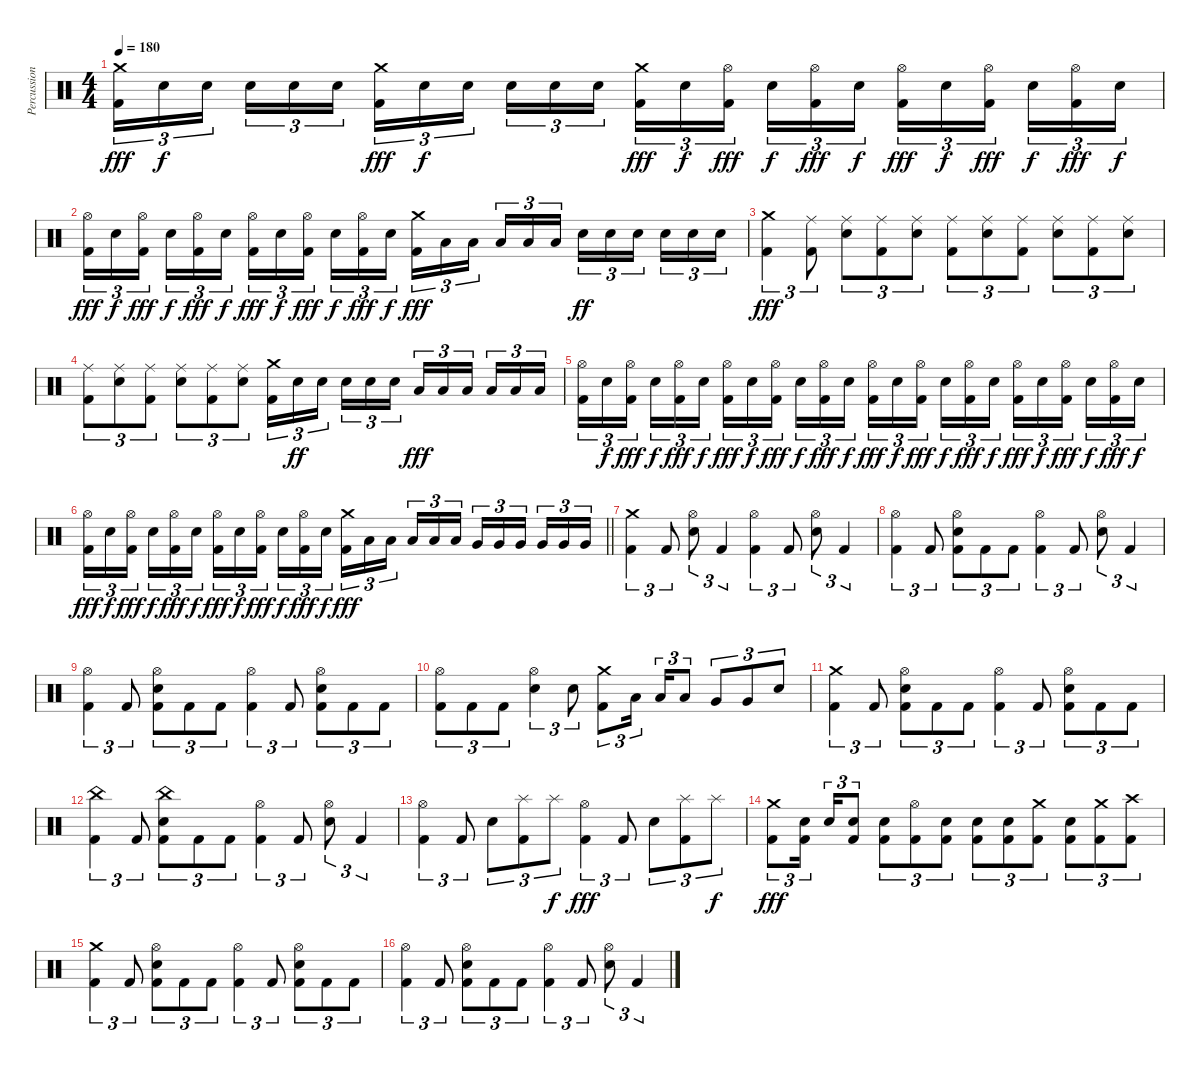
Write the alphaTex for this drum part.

\track ("Percussion" "Percussion") {instrument percussion}
\staff {score}
\articulation defaults
\ts (4 4)
\section ("" "")
\tempo 180
\clef neutral
\ks c
("Crash medium (hit)" "Kick (hit) 2").16{tu (3 2) dy fff} "Electric Snare (hit)".16{tu (3 2) dy f} "Electric Snare (hit)".16{tu (3 2) beam splitsecondary} "Electric Snare (hit)".16{tu (3 2)} "Electric Snare (hit)".16{tu (3 2)} "Electric Snare (hit)".16{tu (3 2)} ("Crash medium (hit)" "Kick (hit) 2").16{tu (3 2) dy fff} "Electric Snare (hit)".16{tu (3 2) dy f} "Electric Snare (hit)".16{tu (3 2) beam splitsecondary} "Electric Snare (hit)".16{tu (3 2)} "Electric Snare (hit)".16{tu (3 2)} "Electric Snare (hit)".16{tu (3 2)} ("Crash medium (hit)" "Kick (hit) 2").16{tu (3 2) dy fff} "Electric Snare (hit)".16{tu (3 2) dy f} ("Hi-Hat (open)" "Kick (hit) 2").16{tu (3 2) dy fff beam splitsecondary} "Electric Snare (hit)".16{tu (3 2) dy f} ("Hi-Hat (open)" "Kick (hit) 2").16{tu (3 2) dy fff} "Electric Snare (hit)".16{tu (3 2) dy f} ("Hi-Hat (open)" "Kick (hit) 2").16{tu (3 2) dy fff} "Electric Snare (hit)".16{tu (3 2) dy f} ("Hi-Hat (open)" "Kick (hit) 2").16{tu (3 2) dy fff beam splitsecondary} "Electric Snare (hit)".16{tu (3 2) dy f} ("Hi-Hat (open)" "Kick (hit) 2").16{tu (3 2) dy fff} "Electric Snare (hit)".16{tu (3 2) dy f} |
("Hi-Hat (open)" "Kick (hit) 2").16{tu (3 2) dy fff} "Electric Snare (hit)".16{tu (3 2) dy f} ("Hi-Hat (open)" "Kick (hit) 2").16{tu (3 2) dy fff beam splitsecondary} "Electric Snare (hit)".16{tu (3 2) dy f} ("Hi-Hat (open)" "Kick (hit) 2").16{tu (3 2) dy fff} "Electric Snare (hit)".16{tu (3 2) dy f} ("Hi-Hat (open)" "Kick (hit) 2").16{tu (3 2) dy fff} "Electric Snare (hit)".16{tu (3 2) dy f} ("Hi-Hat (open)" "Kick (hit) 2").16{tu (3 2) dy fff beam splitsecondary} "Electric Snare (hit)".16{tu (3 2) dy f} ("Hi-Hat (open)" "Kick (hit) 2").16{tu (3 2) dy fff} "Electric Snare (hit)".16{tu (3 2) dy f} ("Crash medium (hit)" "Kick (hit) 2").16{tu (3 2) dy fff} "Low Tom (hit)".16{tu (3 2)} "Low Tom (hit)".16{tu (3 2) beam splitsecondary} "Low Tom (hit)".16{tu (3 2)} "Low Tom (hit)".16{tu (3 2)} "Low Tom (hit)".16{tu (3 2)} "Electric Snare (hit)".16{tu (3 2) dy ff} "Electric Snare (hit)".16{tu (3 2)} "Electric Snare (hit)".16{tu (3 2) beam splitsecondary} "Electric Snare (hit)".16{tu (3 2)} "Electric Snare (hit)".16{tu (3 2)} "Electric Snare (hit)".16{tu (3 2)} |
("Crash medium (hit)" "Kick (hit) 2").4{tu (3 2) dy fff} ("Ride (middle)" "Kick (hit) 2").8{tu (3 2)} ("Ride (middle)" "Electric Snare (hit)").8{tu (3 2)} ("Ride (middle)" "Kick (hit) 2").8{tu (3 2)} ("Ride (middle)" "Electric Snare (hit)").8{tu (3 2)} ("Ride (middle)" "Kick (hit) 2").8{tu (3 2)} ("Ride (middle)" "Electric Snare (hit)").8{tu (3 2)} ("Ride (middle)" "Kick (hit) 2").8{tu (3 2)} ("Ride (middle)" "Electric Snare (hit)").8{tu (3 2)} ("Ride (middle)" "Kick (hit) 2").8{tu (3 2)} ("Ride (middle)" "Electric Snare (hit)").8{tu (3 2)} |
("Ride (middle)" "Kick (hit) 2").8{tu (3 2)} ("Ride (middle)" "Electric Snare (hit)").8{tu (3 2)} ("Ride (middle)" "Kick (hit) 2").8{tu (3 2)} ("Ride (middle)" "Electric Snare (hit)").8{tu (3 2)} ("Ride (middle)" "Kick (hit) 2").8{tu (3 2)} ("Ride (middle)" "Electric Snare (hit)").8{tu (3 2)} ("Crash medium (hit)" "Kick (hit) 2").16{tu (3 2)} "Electric Snare (hit)".16{tu (3 2) dy ff} "Electric Snare (hit)".16{tu (3 2) beam splitsecondary} "Electric Snare (hit)".16{tu (3 2)} "Electric Snare (hit)".16{tu (3 2)} "Electric Snare (hit)".16{tu (3 2)} "Low Tom (hit)".16{tu (3 2) dy fff} "Low Tom (hit)".16{tu (3 2)} "Low Tom (hit)".16{tu (3 2) beam splitsecondary} "Low Tom (hit)".16{tu (3 2)} "Low Tom (hit)".16{tu (3 2)} "Low Tom (hit)".16{tu (3 2)} |
("Hi-Hat (open)" "Kick (hit) 2").16{tu (3 2)} "Electric Snare (hit)".16{tu (3 2) dy f} ("Hi-Hat (open)" "Kick (hit) 2").16{tu (3 2) dy fff beam splitsecondary} "Electric Snare (hit)".16{tu (3 2) dy f} ("Hi-Hat (open)" "Kick (hit) 2").16{tu (3 2) dy fff} "Electric Snare (hit)".16{tu (3 2) dy f} ("Hi-Hat (open)" "Kick (hit) 2").16{tu (3 2) dy fff} "Electric Snare (hit)".16{tu (3 2) dy f} ("Hi-Hat (open)" "Kick (hit) 2").16{tu (3 2) dy fff beam splitsecondary} "Electric Snare (hit)".16{tu (3 2) dy f} ("Hi-Hat (open)" "Kick (hit) 2").16{tu (3 2) dy fff} "Electric Snare (hit)".16{tu (3 2) dy f} ("Hi-Hat (open)" "Kick (hit) 2").16{tu (3 2) dy fff} "Electric Snare (hit)".16{tu (3 2) dy f} ("Hi-Hat (open)" "Kick (hit) 2").16{tu (3 2) dy fff beam splitsecondary} "Electric Snare (hit)".16{tu (3 2) dy f} ("Hi-Hat (open)" "Kick (hit) 2").16{tu (3 2) dy fff} "Electric Snare (hit)".16{tu (3 2) dy f} ("Hi-Hat (open)" "Kick (hit) 2").16{tu (3 2) dy fff} "Electric Snare (hit)".16{tu (3 2) dy f} ("Hi-Hat (open)" "Kick (hit) 2").16{tu (3 2) dy fff beam splitsecondary} "Electric Snare (hit)".16{tu (3 2) dy f} ("Hi-Hat (open)" "Kick (hit) 2").16{tu (3 2) dy fff} "Electric Snare (hit)".16{tu (3 2) dy f} |
\barLineRight lightlight
("Hi-Hat (open)" "Kick (hit) 2").16{tu (3 2) dy fff} "Electric Snare (hit)".16{tu (3 2) dy f} ("Hi-Hat (open)" "Kick (hit) 2").16{tu (3 2) dy fff beam splitsecondary} "Electric Snare (hit)".16{tu (3 2) dy f} ("Hi-Hat (open)" "Kick (hit) 2").16{tu (3 2) dy fff} "Electric Snare (hit)".16{tu (3 2) dy f} ("Hi-Hat (open)" "Kick (hit) 2").16{tu (3 2) dy fff} "Electric Snare (hit)".16{tu (3 2) dy f} ("Hi-Hat (open)" "Kick (hit) 2").16{tu (3 2) dy fff beam splitsecondary} "Electric Snare (hit)".16{tu (3 2) dy f} ("Hi-Hat (open)" "Kick (hit) 2").16{tu (3 2) dy fff} "Electric Snare (hit)".16{tu (3 2) dy f} ("Crash medium (hit)" "Kick (hit) 2").16{tu (3 2) dy fff} "Low Tom (hit)".16{tu (3 2)} "Low Tom (hit)".16{tu (3 2) beam splitsecondary} "Low Tom (hit)".16{tu (3 2)} "Low Tom (hit)".16{tu (3 2)} "Low Tom (hit)".16{tu (3 2)} "Very Low Tom (hit)".16{tu (3 2)} "Very Low Tom (hit)".16{tu (3 2)} "Very Low Tom (hit)".16{tu (3 2) beam splitsecondary} "Very Low Tom (hit)".16{tu (3 2)} "Very Low Tom (hit)".16{tu (3 2)} "Very Low Tom (hit)".16{tu (3 2)} |
\section ("" "")
("Crash medium (hit)" "Kick (hit) 2").4{tu (3 2)} "Kick (hit) 2".8{tu (3 2)} ("Hi-Hat (open)" "Electric Snare (hit)").8{tu (3 2)} "Kick (hit) 2".4{tu (3 2)} ("Hi-Hat (open)" "Kick (hit) 2").4{tu (3 2)} "Kick (hit) 2".8{tu (3 2)} ("Hi-Hat (open)" "Electric Snare (hit)").8{tu (3 2)} "Kick (hit) 2".4{tu (3 2)} |
("Hi-Hat (open)" "Kick (hit) 2").4{tu (3 2)} "Kick (hit) 2".8{tu (3 2)} ("Hi-Hat (open)" "Electric Snare (hit)" "Kick (hit) 2").8{tu (3 2)} "Kick (hit) 2".8{tu (3 2)} "Kick (hit) 2".8{tu (3 2)} ("Hi-Hat (open)" "Kick (hit) 2").4{tu (3 2)} "Kick (hit) 2".8{tu (3 2)} ("Hi-Hat (open)" "Electric Snare (hit)").8{tu (3 2)} "Kick (hit) 2".4{tu (3 2)} |
("Hi-Hat (open)" "Kick (hit) 2").4{tu (3 2)} "Kick (hit) 2".8{tu (3 2)} ("Hi-Hat (open)" "Electric Snare (hit)" "Kick (hit) 2").8{tu (3 2)} "Kick (hit) 2".8{tu (3 2)} "Kick (hit) 2".8{tu (3 2)} ("Hi-Hat (open)" "Kick (hit) 2").4{tu (3 2)} "Kick (hit) 2".8{tu (3 2)} ("Hi-Hat (open)" "Electric Snare (hit)" "Kick (hit) 2").8{tu (3 2)} "Kick (hit) 2".8{tu (3 2)} "Kick (hit) 2".8{tu (3 2)} |
("Hi-Hat (open)" "Kick (hit) 2").8{tu (3 2)} "Kick (hit) 2".8{tu (3 2)} "Kick (hit) 2".8{tu (3 2)} ("Hi-Hat (open)" "Electric Snare (hit)").4{tu (3 2)} "Electric Snare (hit)".8{tu (3 2)} ("Crash medium (hit)" "Kick (hit) 2").8{tu (3 2)} "Low Tom (hit)".16{tu (3 2)} "Low Tom (hit)".16{tu (3 2)} "Low Tom (hit)".8{tu (3 2)} "Very Low Tom (hit)".8{tu (3 2)} "Very Low Tom (hit)".8{tu (3 2)} "Electric Snare (hit)".8{tu (3 2)} |
("Crash medium (hit)" "Kick (hit) 2").4{tu (3 2)} "Kick (hit) 2".8{tu (3 2)} ("Hi-Hat (open)" "Electric Snare (hit)" "Kick (hit) 2").8{tu (3 2)} "Kick (hit) 2".8{tu (3 2)} "Kick (hit) 2".8{tu (3 2)} ("Hi-Hat (open)" "Kick (hit) 2").4{tu (3 2)} "Kick (hit) 2".8{tu (3 2)} ("Hi-Hat (open)" "Electric Snare (hit)" "Kick (hit) 2").8{tu (3 2)} "Kick (hit) 2".8{tu (3 2)} "Kick (hit) 2".8{tu (3 2)} |
("China (hit)" "Kick (hit) 2").4{tu (3 2)} "Kick (hit) 2".8{tu (3 2)} ("China (hit)" "Electric Snare (hit)" "Kick (hit) 2").8{tu (3 2)} "Kick (hit) 2".8{tu (3 2)} "Kick (hit) 2".8{tu (3 2)} ("Hi-Hat (open)" "Kick (hit) 2").4{tu (3 2)} "Kick (hit) 2".8{tu (3 2)} ("Hi-Hat (open)" "Electric Snare (hit)").8{tu (3 2)} "Kick (hit) 2".4{tu (3 2)} |
("Hi-Hat (open)" "Kick (hit) 2").4{tu (3 2)} "Kick (hit) 2".8{tu (3 2)} "Electric Snare (hit)".8{tu (3 2)} ("Splash (hit)" "Kick (hit) 2").8{tu (3 2)} "Splash (hit)".8{tu (3 2) dy f} ("Hi-Hat (open)" "Kick (hit) 2").4{tu (3 2) dy fff} "Kick (hit) 2".8{tu (3 2)} "Electric Snare (hit)".8{tu (3 2)} ("Splash (hit)" "Kick (hit) 2").8{tu (3 2)} "Splash (hit)".8{tu (3 2) dy f} |
("Crash medium (hit)" "Kick (hit) 2").8{tu (3 2) dy fff} ("Electric Snare (hit)" "Kick (hit) 2").16{tu (3 2)} "Electric Snare (hit)".16{tu (3 2)} ("Electric Snare (hit)" "Kick (hit) 2").8{tu (3 2)} ("Electric Snare (hit)" "Kick (hit) 2").8{tu (3 2)} ("Hi-Hat (open)" "Kick (hit) 2").8{tu (3 2)} ("Electric Snare (hit)" "Kick (hit) 2").8{tu (3 2)} ("Electric Snare (hit)" "Kick (hit) 2").8{tu (3 2)} ("Electric Snare (hit)" "Kick (hit) 2").8{tu (3 2)} ("Crash medium (hit)" "Kick (hit) 2").8{tu (3 2)} ("Electric Snare (hit)" "Kick (hit) 2").8{tu (3 2)} ("Crash medium (hit)" "Kick (hit) 2").8{tu (3 2)} ("Crash high (hit)" "Kick (hit) 2").8{tu (3 2)} |
("Crash medium (hit)" "Kick (hit) 2").4{tu (3 2)} "Kick (hit) 2".8{tu (3 2)} ("Hi-Hat (open)" "Electric Snare (hit)" "Kick (hit) 2").8{tu (3 2)} "Kick (hit) 2".8{tu (3 2)} "Kick (hit) 2".8{tu (3 2)} ("Hi-Hat (open)" "Kick (hit) 2").4{tu (3 2)} "Kick (hit) 2".8{tu (3 2)} ("Hi-Hat (open)" "Electric Snare (hit)" "Kick (hit) 2").8{tu (3 2)} "Kick (hit) 2".8{tu (3 2)} "Kick (hit) 2".8{tu (3 2)} |
("Hi-Hat (open)" "Kick (hit) 2").4{tu (3 2)} "Kick (hit) 2".8{tu (3 2)} ("Hi-Hat (open)" "Electric Snare (hit)" "Kick (hit) 2").8{tu (3 2)} "Kick (hit) 2".8{tu (3 2)} "Kick (hit) 2".8{tu (3 2)} ("Hi-Hat (open)" "Kick (hit) 2").4{tu (3 2)} "Kick (hit) 2".8{tu (3 2)} ("Hi-Hat (open)" "Electric Snare (hit)").8{tu (3 2)} "Kick (hit) 2".4{tu (3 2)}
